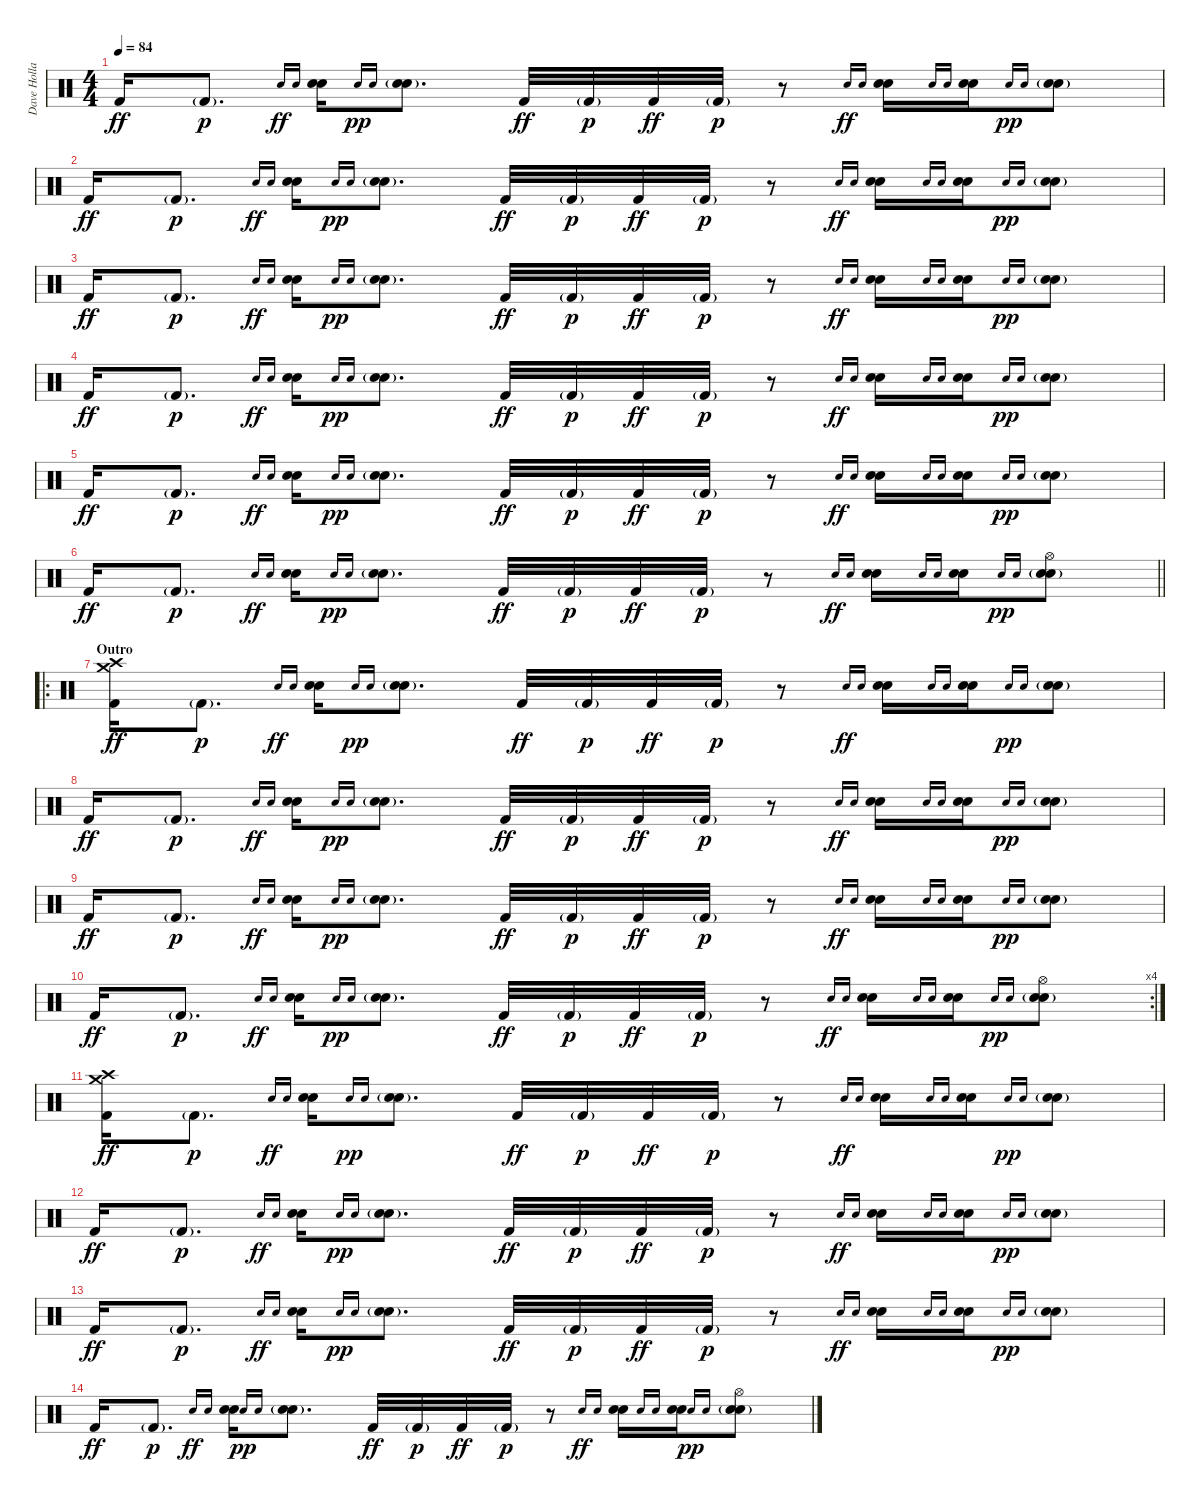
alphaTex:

\track ("Dave Holland" "Dave Holla") {instrument percussion}
\staff {score}
\articulation defaults
\ts (4 4)
\tempo 84
\clef neutral
\ks c "Kick (hit) 2".16{dy ff} "Kick (hit) 2"{g}.8{d dy p} "Electric Snare (hit)".16{gr onbeat dy ff} "Snare (hit) 2".16{gr onbeat}
("Electric Snare (hit)" "Snare (hit) 2").16 "Electric Snare (hit)".16{gr onbeat dy pp} "Snare (hit) 2".16{gr onbeat} ("Electric Snare (hit)"{g} "Snare (hit) 2"{g}).8{d} "Kick (hit) 2".32{dy ff} "Kick (hit) 2"{g}.32{dy p} "Kick (hit) 2".32{dy ff} "Kick (hit) 2"{g}.32{dy p} r.8 "Electric Snare (hit)".16{gr onbeat dy ff} "Snare (hit) 2".16{gr onbeat} ("Electric Snare (hit)" "Snare (hit) 2").16 "Electric Snare (hit)".16{gr onbeat} "Snare (hit) 2".16{gr onbeat} ("Electric Snare (hit)" "Snare (hit) 2").16 "Electric Snare (hit)".16{gr onbeat dy pp} "Snare (hit) 2".16{gr onbeat} ("Electric Snare (hit)"{g} "Snare (hit) 2"{g}).8 |
"Kick (hit) 2".16{dy ff} "Kick (hit) 2"{g}.8{d dy p} "Electric Snare (hit)".16{gr onbeat dy ff} "Snare (hit) 2".16{gr onbeat} ("Electric Snare (hit)" "Snare (hit) 2").16 "Electric Snare (hit)".16{gr onbeat dy pp} "Snare (hit) 2".16{gr onbeat} ("Electric Snare (hit)"{g} "Snare (hit) 2"{g}).8{d} "Kick (hit) 2".32{dy ff} "Kick (hit) 2"{g}.32{dy p} "Kick (hit) 2".32{dy ff} "Kick (hit) 2"{g}.32{dy p} r.8 "Electric Snare (hit)".16{gr onbeat dy ff} "Snare (hit) 2".16{gr onbeat} ("Electric Snare (hit)" "Snare (hit) 2").16 "Electric Snare (hit)".16{gr onbeat} "Snare (hit) 2".16{gr onbeat} ("Electric Snare (hit)" "Snare (hit) 2").16 "Electric Snare (hit)".16{gr onbeat dy pp} "Snare (hit) 2".16{gr onbeat} ("Electric Snare (hit)"{g} "Snare (hit) 2"{g}).8 |
"Kick (hit) 2".16{dy ff} "Kick (hit) 2"{g}.8{d dy p} "Electric Snare (hit)".16{gr onbeat dy ff} "Snare (hit) 2".16{gr onbeat} ("Electric Snare (hit)" "Snare (hit) 2").16 "Electric Snare (hit)".16{gr onbeat dy pp} "Snare (hit) 2".16{gr onbeat} ("Electric Snare (hit)"{g} "Snare (hit) 2"{g}).8{d} "Kick (hit) 2".32{dy ff} "Kick (hit) 2"{g}.32{dy p} "Kick (hit) 2".32{dy ff} "Kick (hit) 2"{g}.32{dy p} r.8 "Electric Snare (hit)".16{gr onbeat dy ff} "Snare (hit) 2".16{gr onbeat} ("Electric Snare (hit)" "Snare (hit) 2").16 "Electric Snare (hit)".16{gr onbeat} "Snare (hit) 2".16{gr onbeat} ("Electric Snare (hit)" "Snare (hit) 2").16 "Electric Snare (hit)".16{gr onbeat dy pp} "Snare (hit) 2".16{gr onbeat} ("Electric Snare (hit)"{g} "Snare (hit) 2"{g}).8 |
"Kick (hit) 2".16{dy ff} "Kick (hit) 2"{g}.8{d dy p} "Electric Snare (hit)".16{gr onbeat dy ff} "Snare (hit) 2".16{gr onbeat} ("Electric Snare (hit)" "Snare (hit) 2").16 "Electric Snare (hit)".16{gr onbeat dy pp} "Snare (hit) 2".16{gr onbeat} ("Electric Snare (hit)"{g} "Snare (hit) 2"{g}).8{d} "Kick (hit) 2".32{dy ff} "Kick (hit) 2"{g}.32{dy p} "Kick (hit) 2".32{dy ff} "Kick (hit) 2"{g}.32{dy p} r.8 "Electric Snare (hit)".16{gr onbeat dy ff} "Snare (hit) 2".16{gr onbeat} ("Electric Snare (hit)" "Snare (hit) 2").16 "Electric Snare (hit)".16{gr onbeat} "Snare (hit) 2".16{gr onbeat} ("Electric Snare (hit)" "Snare (hit) 2").16 "Electric Snare (hit)".16{gr onbeat dy pp} "Snare (hit) 2".16{gr onbeat} ("Electric Snare (hit)"{g} "Snare (hit) 2"{g}).8 |
"Kick (hit) 2".16{dy ff} "Kick (hit) 2"{g}.8{d dy p} "Electric Snare (hit)".16{gr onbeat dy ff} "Snare (hit) 2".16{gr onbeat} ("Electric Snare (hit)" "Snare (hit) 2").16 "Electric Snare (hit)".16{gr onbeat dy pp} "Snare (hit) 2".16{gr onbeat} ("Electric Snare (hit)"{g} "Snare (hit) 2"{g}).8{d} "Kick (hit) 2".32{dy ff} "Kick (hit) 2"{g}.32{dy p} "Kick (hit) 2".32{dy ff} "Kick (hit) 2"{g}.32{dy p} r.8 "Electric Snare (hit)".16{gr onbeat dy ff} "Snare (hit) 2".16{gr onbeat} ("Electric Snare (hit)" "Snare (hit) 2").16 "Electric Snare (hit)".16{gr onbeat} "Snare (hit) 2".16{gr onbeat} ("Electric Snare (hit)" "Snare (hit) 2").16 "Electric Snare (hit)".16{gr onbeat dy pp} "Snare (hit) 2".16{gr onbeat} ("Electric Snare (hit)"{g} "Snare (hit) 2"{g}).8 |
\barLineRight lightlight "Kick (hit) 2".16{dy ff} "Kick (hit) 2"{g}.8{d dy p} "Electric Snare (hit)".16{gr onbeat dy ff} "Snare (hit) 2".16{gr onbeat}
("Electric Snare (hit)" "Snare (hit) 2").16 "Electric Snare (hit)".16{gr onbeat dy pp} "Snare (hit) 2".16{gr onbeat} ("Electric Snare (hit)"{g} "Snare (hit) 2"{g}).8{d} "Kick (hit) 2".32{dy ff} "Kick (hit) 2"{g}.32{dy p} "Kick (hit) 2".32{dy ff} "Kick (hit) 2"{g}.32{dy p} r.8 "Electric Snare (hit)".16{gr onbeat dy ff} "Snare (hit) 2".16{gr onbeat} ("Electric Snare (hit)" "Snare (hit) 2").16 "Electric Snare (hit)".16{gr onbeat} "Snare (hit) 2".16{gr onbeat} ("Electric Snare (hit)" "Snare (hit) 2").16 "Electric Snare (hit)".16{gr onbeat dy pp} "Snare (hit) 2".16{gr onbeat} ("Hi-Hat (open)" "Electric Snare (hit)"{g} "Snare (hit) 2"{g}).8 |
\ro
\section ("" "Outro")
("Crash medium (hit)" "Crash high (hit)" "Kick (hit) 2").16{dy ff} "Kick (hit) 2"{g}.8{d dy p} "Electric Snare (hit)".16{gr onbeat dy ff} "Snare (hit) 2".16{gr onbeat} ("Electric Snare (hit)" "Snare (hit) 2").16 "Electric Snare (hit)".16{gr onbeat dy pp} "Snare (hit) 2".16{gr onbeat} ("Electric Snare (hit)"{g} "Snare (hit) 2"{g}).8{d} "Kick (hit) 2".32{dy ff} "Kick (hit) 2"{g}.32{dy p} "Kick (hit) 2".32{dy ff} "Kick (hit) 2"{g}.32{dy p} r.8 "Electric Snare (hit)".16{gr onbeat dy ff} "Snare (hit) 2".16{gr onbeat} ("Electric Snare (hit)" "Snare (hit) 2").16 "Electric Snare (hit)".16{gr onbeat} "Snare (hit) 2".16{gr onbeat} ("Electric Snare (hit)" "Snare (hit) 2").16 "Electric Snare (hit)".16{gr onbeat dy pp} "Snare (hit) 2".16{gr onbeat} ("Electric Snare (hit)"{g} "Snare (hit) 2"{g}).8 |
"Kick (hit) 2".16{dy ff} "Kick (hit) 2"{g}.8{d dy p} "Electric Snare (hit)".16{gr onbeat dy ff} "Snare (hit) 2".16{gr onbeat} ("Electric Snare (hit)" "Snare (hit) 2").16 "Electric Snare (hit)".16{gr onbeat dy pp} "Snare (hit) 2".16{gr onbeat} ("Electric Snare (hit)"{g} "Snare (hit) 2"{g}).8{d} "Kick (hit) 2".32{dy ff} "Kick (hit) 2"{g}.32{dy p} "Kick (hit) 2".32{dy ff} "Kick (hit) 2"{g}.32{dy p} r.8 "Electric Snare (hit)".16{gr onbeat dy ff} "Snare (hit) 2".16{gr onbeat} ("Electric Snare (hit)" "Snare (hit) 2").16 "Electric Snare (hit)".16{gr onbeat} "Snare (hit) 2".16{gr onbeat} ("Electric Snare (hit)" "Snare (hit) 2").16 "Electric Snare (hit)".16{gr onbeat dy pp} "Snare (hit) 2".16{gr onbeat} ("Electric Snare (hit)"{g} "Snare (hit) 2"{g}).8 |
"Kick (hit) 2".16{dy ff} "Kick (hit) 2"{g}.8{d dy p} "Electric Snare (hit)".16{gr onbeat dy ff} "Snare (hit) 2".16{gr onbeat} ("Electric Snare (hit)" "Snare (hit) 2").16 "Electric Snare (hit)".16{gr onbeat dy pp} "Snare (hit) 2".16{gr onbeat} ("Electric Snare (hit)"{g} "Snare (hit) 2"{g}).8{d} "Kick (hit) 2".32{dy ff} "Kick (hit) 2"{g}.32{dy p} "Kick (hit) 2".32{dy ff} "Kick (hit) 2"{g}.32{dy p} r.8 "Electric Snare (hit)".16{gr onbeat dy ff} "Snare (hit) 2".16{gr onbeat} ("Electric Snare (hit)" "Snare (hit) 2").16 "Electric Snare (hit)".16{gr onbeat} "Snare (hit) 2".16{gr onbeat} ("Electric Snare (hit)" "Snare (hit) 2").16 "Electric Snare (hit)".16{gr onbeat dy pp} "Snare (hit) 2".16{gr onbeat} ("Electric Snare (hit)"{g} "Snare (hit) 2"{g}).8 |
\rc 4 "Kick (hit) 2".16{dy ff} "Kick (hit) 2"{g}.8{d dy p} "Electric Snare (hit)".16{gr onbeat dy ff} "Snare (hit) 2".16{gr onbeat}
("Electric Snare (hit)" "Snare (hit) 2").16 "Electric Snare (hit)".16{gr onbeat dy pp} "Snare (hit) 2".16{gr onbeat} ("Electric Snare (hit)"{g} "Snare (hit) 2"{g}).8{d} "Kick (hit) 2".32{dy ff} "Kick (hit) 2"{g}.32{dy p} "Kick (hit) 2".32{dy ff} "Kick (hit) 2"{g}.32{dy p} r.8 "Electric Snare (hit)".16{gr onbeat dy ff} "Snare (hit) 2".16{gr onbeat} ("Electric Snare (hit)" "Snare (hit) 2").16 "Electric Snare (hit)".16{gr onbeat} "Snare (hit) 2".16{gr onbeat} ("Electric Snare (hit)" "Snare (hit) 2").16 "Electric Snare (hit)".16{gr onbeat dy pp} "Snare (hit) 2".16{gr onbeat} ("Hi-Hat (open)" "Electric Snare (hit)"{g} "Snare (hit) 2"{g}).8 |
("Crash medium (hit)" "Crash high (hit)" "Kick (hit) 2").16{dy ff volume 0} "Kick (hit) 2"{g}.8{d dy p} "Electric Snare (hit)".16{gr onbeat dy ff} "Snare (hit) 2".16{gr onbeat} ("Electric Snare (hit)" "Snare (hit) 2").16 "Electric Snare (hit)".16{gr onbeat dy pp} "Snare (hit) 2".16{gr onbeat} ("Electric Snare (hit)"{g} "Snare (hit) 2"{g}).8{d} "Kick (hit) 2".32{dy ff} "Kick (hit) 2"{g}.32{dy p} "Kick (hit) 2".32{dy ff} "Kick (hit) 2"{g}.32{dy p} r.8 "Electric Snare (hit)".16{gr onbeat dy ff} "Snare (hit) 2".16{gr onbeat} ("Electric Snare (hit)" "Snare (hit) 2").16 "Electric Snare (hit)".16{gr onbeat} "Snare (hit) 2".16{gr onbeat} ("Electric Snare (hit)" "Snare (hit) 2").16 "Electric Snare (hit)".16{gr onbeat dy pp} "Snare (hit) 2".16{gr onbeat} ("Electric Snare (hit)"{g} "Snare (hit) 2"{g}).8 |
"Kick (hit) 2".16{dy ff} "Kick (hit) 2"{g}.8{d dy p} "Electric Snare (hit)".16{gr onbeat dy ff} "Snare (hit) 2".16{gr onbeat} ("Electric Snare (hit)" "Snare (hit) 2").16 "Electric Snare (hit)".16{gr onbeat dy pp} "Snare (hit) 2".16{gr onbeat} ("Electric Snare (hit)"{g} "Snare (hit) 2"{g}).8{d} "Kick (hit) 2".32{dy ff} "Kick (hit) 2"{g}.32{dy p} "Kick (hit) 2".32{dy ff} "Kick (hit) 2"{g}.32{dy p} r.8 "Electric Snare (hit)".16{gr onbeat dy ff} "Snare (hit) 2".16{gr onbeat} ("Electric Snare (hit)" "Snare (hit) 2").16 "Electric Snare (hit)".16{gr onbeat} "Snare (hit) 2".16{gr onbeat} ("Electric Snare (hit)" "Snare (hit) 2").16 "Electric Snare (hit)".16{gr onbeat dy pp} "Snare (hit) 2".16{gr onbeat} ("Electric Snare (hit)"{g} "Snare (hit) 2"{g}).8 |
"Kick (hit) 2".16{dy ff} "Kick (hit) 2"{g}.8{d dy p} "Electric Snare (hit)".16{gr onbeat dy ff} "Snare (hit) 2".16{gr onbeat} ("Electric Snare (hit)" "Snare (hit) 2").16 "Electric Snare (hit)".16{gr onbeat dy pp} "Snare (hit) 2".16{gr onbeat} ("Electric Snare (hit)"{g} "Snare (hit) 2"{g}).8{d} "Kick (hit) 2".32{dy ff} "Kick (hit) 2"{g}.32{dy p} "Kick (hit) 2".32{dy ff} "Kick (hit) 2"{g}.32{dy p} r.8 "Electric Snare (hit)".16{gr onbeat dy ff} "Snare (hit) 2".16{gr onbeat} ("Electric Snare (hit)" "Snare (hit) 2").16 "Electric Snare (hit)".16{gr onbeat} "Snare (hit) 2".16{gr onbeat} ("Electric Snare (hit)" "Snare (hit) 2").16 "Electric Snare (hit)".16{gr onbeat dy pp} "Snare (hit) 2".16{gr onbeat} ("Electric Snare (hit)"{g} "Snare (hit) 2"{g}).8 |
"Kick (hit) 2".16{dy ff} "Kick (hit) 2"{g}.8{d dy p} "Electric Snare (hit)".16{gr onbeat dy ff} "Snare (hit) 2".16{gr onbeat} ("Electric Snare (hit)" "Snare (hit) 2").16 "Electric Snare (hit)".16{gr onbeat dy pp} "Snare (hit) 2".16{gr onbeat} ("Electric Snare (hit)"{g} "Snare (hit) 2"{g}).8{d} "Kick (hit) 2".32{dy ff} "Kick (hit) 2"{g}.32{dy p} "Kick (hit) 2".32{dy ff} "Kick (hit) 2"{g}.32{dy p} r.8 "Electric Snare (hit)".16{gr onbeat dy ff} "Snare (hit) 2".16{gr onbeat} ("Electric Snare (hit)" "Snare (hit) 2").16 "Electric Snare (hit)".16{gr onbeat} "Snare (hit) 2".16{gr onbeat} ("Electric Snare (hit)" "Snare (hit) 2").16 "Electric Snare (hit)".16{gr onbeat dy pp} "Snare (hit) 2".16{gr onbeat} ("Hi-Hat (open)" "Electric Snare (hit)"{g} "Snare (hit) 2"{g}).8
